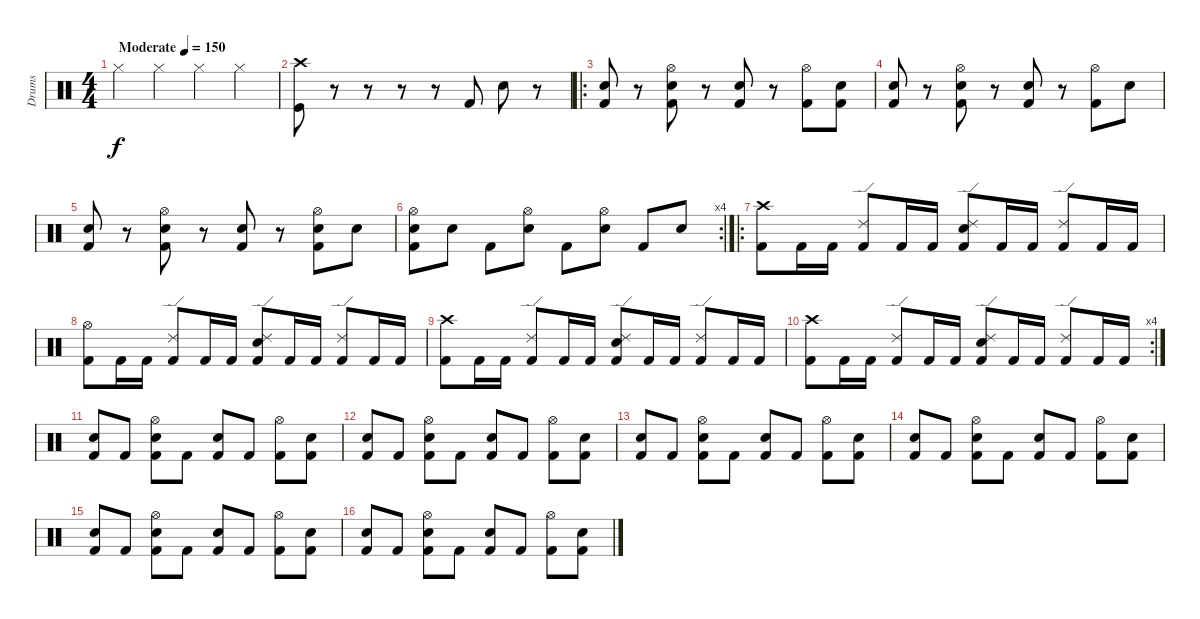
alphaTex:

\track ("Drums" "Drums") {instrument percussion}
\staff {score}
\articulation defaults
\ts (4 4)
\tempo (150 "Moderate")
\clef neutral
\ks c "Hi-Hat (closed)".4{dy f} "Hi-Hat (closed)".4 "Hi-Hat (closed)".4 "Hi-Hat (closed)".4
|
("Crash high (hit)" "Kick (hit)").8 r.8 r.8 r.8 r.8 "Kick (hit) 2".8 "Electric Snare (hit)".8 r.8 |
\ro
("Electric Snare (hit)" "Kick (hit) 2").8 r.8 ("Electric Snare (hit)" "Hi-Hat (open)" "Kick (hit) 2").8 r.8 ("Electric Snare (hit)" "Kick (hit) 2").8 r.8 ("Hi-Hat (open)" "Kick (hit) 2").8 ("Electric Snare (hit)" "Kick (hit) 2").8 |
("Electric Snare (hit)" "Kick (hit) 2").8 r.8 ("Electric Snare (hit)" "Hi-Hat (open)" "Kick (hit) 2").8 r.8 ("Electric Snare (hit)" "Kick (hit) 2").8 r.8 ("Hi-Hat (open)" "Kick (hit) 2").8 "Electric Snare (hit)".8 |
("Electric Snare (hit)" "Kick (hit) 2").8 r.8 ("Electric Snare (hit)" "Hi-Hat (open)" "Kick (hit) 2").8 r.8 ("Electric Snare (hit)" "Kick (hit) 2").8 r.8 ("Electric Snare (hit)" "Hi-Hat (open)" "Kick (hit) 2").8 "Electric Snare (hit)".8 |
\rc 4
("Hi-Hat (open)" "Electric Snare (hit)" "Kick (hit) 2").8 "Electric Snare (hit)".8 "Kick (hit) 2".8 ("Hi-Hat (open)" "Electric Snare (hit)").8 "Kick (hit) 2".8 ("Hi-Hat (open)" "Electric Snare (hit)").8 "Kick (hit) 2".8 "Electric Snare (hit)".8 |
\ro
("Crash high (hit)" "Kick (hit) 2").8 "Kick (hit) 2".16 "Kick (hit) 2".16 ("Ride (edge) 2" "Kick (hit) 2").8 "Kick (hit) 2".16 "Kick (hit) 2".16 ("Electric Snare (hit)" "Ride (edge) 2" "Kick (hit) 2").8 "Kick (hit) 2".16 "Kick (hit) 2".16 ("Ride (edge) 2" "Kick (hit) 2").8 "Kick (hit) 2".16 "Kick (hit) 2".16 |
("Hi-Hat (open)" "Kick (hit) 2").8 "Kick (hit) 2".16 "Kick (hit) 2".16 ("Ride (edge) 2" "Kick (hit) 2").8 "Kick (hit) 2".16 "Kick (hit) 2".16 ("Electric Snare (hit)" "Ride (edge) 2" "Kick (hit) 2").8 "Kick (hit) 2".16 "Kick (hit) 2".16 ("Ride (edge) 2" "Kick (hit) 2").8 "Kick (hit) 2".16 "Kick (hit) 2".16 |
("Crash high (hit)" "Kick (hit) 2").8 "Kick (hit) 2".16 "Kick (hit) 2".16 ("Ride (edge) 2" "Kick (hit) 2").8 "Kick (hit) 2".16 "Kick (hit) 2".16 ("Electric Snare (hit)" "Ride (edge) 2" "Kick (hit) 2").8 "Kick (hit) 2".16 "Kick (hit) 2".16 ("Ride (edge) 2" "Kick (hit) 2").8 "Kick (hit) 2".16 "Kick (hit) 2".16 |
\rc 4
("Crash high (hit)" "Kick (hit) 2").8 "Kick (hit) 2".16 "Kick (hit) 2".16 ("Ride (edge) 2" "Kick (hit) 2").8 "Kick (hit) 2".16 "Kick (hit) 2".16 ("Electric Snare (hit)" "Ride (edge) 2" "Kick (hit) 2").8 "Kick (hit) 2".16 "Kick (hit) 2".16 ("Ride (edge) 2" "Kick (hit) 2").8 "Kick (hit) 2".16 "Kick (hit) 2".16 |
("Electric Snare (hit)" "Kick (hit) 2").8 "Kick (hit) 2".8 ("Electric Snare (hit)" "Hi-Hat (open)" "Kick (hit) 2").8 "Kick (hit) 2".8 ("Electric Snare (hit)" "Kick (hit) 2").8 "Kick (hit) 2".8 ("Hi-Hat (open)" "Kick (hit) 2").8 ("Electric Snare (hit)" "Kick (hit) 2").8 |
("Electric Snare (hit)" "Kick (hit) 2").8 "Kick (hit) 2".8 ("Electric Snare (hit)" "Hi-Hat (open)" "Kick (hit) 2").8 "Kick (hit) 2".8 ("Electric Snare (hit)" "Kick (hit) 2").8 "Kick (hit) 2".8 ("Hi-Hat (open)" "Kick (hit) 2").8 ("Electric Snare (hit)" "Kick (hit) 2").8 |
("Electric Snare (hit)" "Kick (hit) 2").8 "Kick (hit) 2".8 ("Electric Snare (hit)" "Hi-Hat (open)" "Kick (hit) 2").8 "Kick (hit) 2".8 ("Electric Snare (hit)" "Kick (hit) 2").8 "Kick (hit) 2".8 ("Hi-Hat (open)" "Kick (hit) 2").8 ("Electric Snare (hit)" "Kick (hit) 2").8 |
("Electric Snare (hit)" "Kick (hit) 2").8 "Kick (hit) 2".8 ("Electric Snare (hit)" "Hi-Hat (open)" "Kick (hit) 2").8 "Kick (hit) 2".8 ("Electric Snare (hit)" "Kick (hit) 2").8 "Kick (hit) 2".8 ("Hi-Hat (open)" "Kick (hit) 2").8 ("Electric Snare (hit)" "Kick (hit) 2").8 |
("Electric Snare (hit)" "Kick (hit) 2").8 "Kick (hit) 2".8 ("Electric Snare (hit)" "Hi-Hat (open)" "Kick (hit) 2").8 "Kick (hit) 2".8 ("Electric Snare (hit)" "Kick (hit) 2").8 "Kick (hit) 2".8 ("Hi-Hat (open)" "Kick (hit) 2").8 ("Electric Snare (hit)" "Kick (hit) 2").8 |
("Electric Snare (hit)" "Kick (hit) 2").8 "Kick (hit) 2".8 ("Electric Snare (hit)" "Hi-Hat (open)" "Kick (hit) 2").8 "Kick (hit) 2".8 ("Electric Snare (hit)" "Kick (hit) 2").8 "Kick (hit) 2".8 ("Hi-Hat (open)" "Kick (hit) 2").8 ("Electric Snare (hit)" "Kick (hit) 2").8
